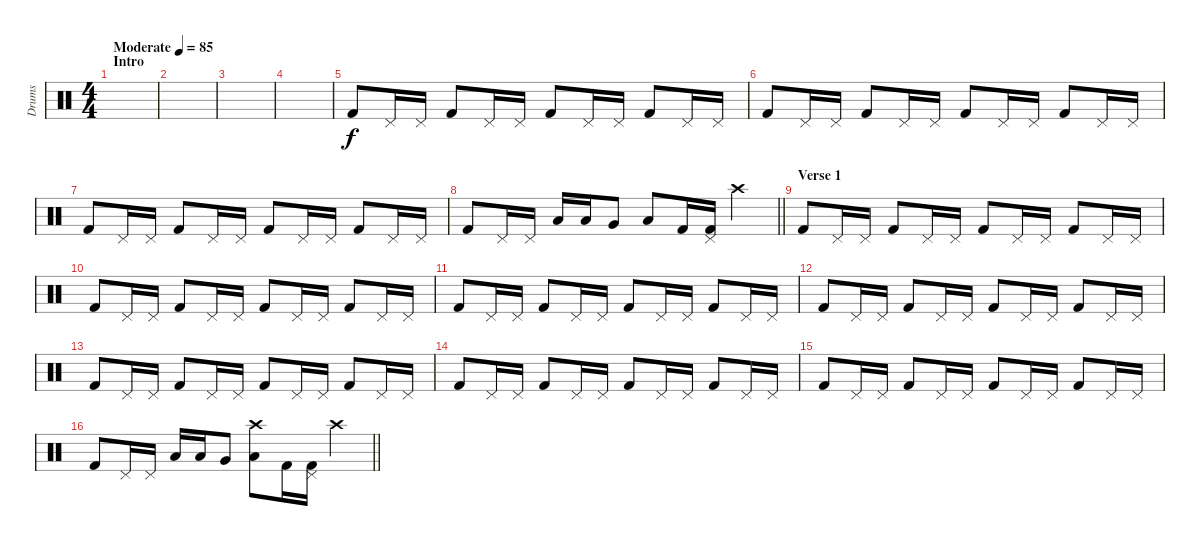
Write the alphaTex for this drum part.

\track ("Drums" "Drums") {instrument percussion}
\staff {score}
\articulation defaults
\ts (4 4)
\section ("" "Intro")
\tempo (85 "Moderate")
\clef neutral
\ks c
|
|
|
|
"Kick (hit) 2".8 "Pedal Hi-Hat (hit)".16 "Pedal Hi-Hat (hit)".16 "Kick (hit) 2".8 "Pedal Hi-Hat (hit)".16 "Pedal Hi-Hat (hit)".16 "Kick (hit) 2".8 "Pedal Hi-Hat (hit)".16 "Pedal Hi-Hat (hit)".16 "Kick (hit) 2".8 "Pedal Hi-Hat (hit)".16 "Pedal Hi-Hat (hit)".16 |
"Kick (hit) 2".8 "Pedal Hi-Hat (hit)".16 "Pedal Hi-Hat (hit)".16 "Kick (hit) 2".8 "Pedal Hi-Hat (hit)".16 "Pedal Hi-Hat (hit)".16 "Kick (hit) 2".8 "Pedal Hi-Hat (hit)".16 "Pedal Hi-Hat (hit)".16 "Kick (hit) 2".8 "Pedal Hi-Hat (hit)".16 "Pedal Hi-Hat (hit)".16 |
"Kick (hit) 2".8 "Pedal Hi-Hat (hit)".16 "Pedal Hi-Hat (hit)".16 "Kick (hit) 2".8 "Pedal Hi-Hat (hit)".16 "Pedal Hi-Hat (hit)".16 "Kick (hit) 2".8 "Pedal Hi-Hat (hit)".16 "Pedal Hi-Hat (hit)".16 "Kick (hit) 2".8 "Pedal Hi-Hat (hit)".16 "Pedal Hi-Hat (hit)".16 |
\barLineRight lightlight "Kick (hit) 2".8 "Pedal Hi-Hat (hit)".16 "Pedal Hi-Hat (hit)".16 "Low Tom (hit)".16 "Low Tom (hit)".16 "Very Low Tom (hit)".8 "Low Floor Tom (hit)".8 "Kick (hit) 2".16
("Pedal Hi-Hat (hit)" "Kick (hit) 2").16 "Crash high (hit)".4 |
\section ("" "Verse 1")
"Kick (hit) 2".8 "Pedal Hi-Hat (hit)".16 "Pedal Hi-Hat (hit)".16 "Kick (hit) 2".8 "Pedal Hi-Hat (hit)".16 "Pedal Hi-Hat (hit)".16 "Kick (hit) 2".8 "Pedal Hi-Hat (hit)".16 "Pedal Hi-Hat (hit)".16 "Kick (hit) 2".8 "Pedal Hi-Hat (hit)".16 "Pedal Hi-Hat (hit)".16 |
"Kick (hit) 2".8 "Pedal Hi-Hat (hit)".16 "Pedal Hi-Hat (hit)".16 "Kick (hit) 2".8 "Pedal Hi-Hat (hit)".16 "Pedal Hi-Hat (hit)".16 "Kick (hit) 2".8 "Pedal Hi-Hat (hit)".16 "Pedal Hi-Hat (hit)".16 "Kick (hit) 2".8 "Pedal Hi-Hat (hit)".16 "Pedal Hi-Hat (hit)".16 |
"Kick (hit) 2".8 "Pedal Hi-Hat (hit)".16 "Pedal Hi-Hat (hit)".16 "Kick (hit) 2".8 "Pedal Hi-Hat (hit)".16 "Pedal Hi-Hat (hit)".16 "Kick (hit) 2".8 "Pedal Hi-Hat (hit)".16 "Pedal Hi-Hat (hit)".16 "Kick (hit) 2".8 "Pedal Hi-Hat (hit)".16 "Pedal Hi-Hat (hit)".16 |
"Kick (hit) 2".8 "Pedal Hi-Hat (hit)".16 "Pedal Hi-Hat (hit)".16 "Kick (hit) 2".8 "Pedal Hi-Hat (hit)".16 "Pedal Hi-Hat (hit)".16 "Kick (hit) 2".8 "Pedal Hi-Hat (hit)".16 "Pedal Hi-Hat (hit)".16 "Kick (hit) 2".8 "Pedal Hi-Hat (hit)".16 "Pedal Hi-Hat (hit)".16 |
"Kick (hit) 2".8 "Pedal Hi-Hat (hit)".16 "Pedal Hi-Hat (hit)".16 "Kick (hit) 2".8 "Pedal Hi-Hat (hit)".16 "Pedal Hi-Hat (hit)".16 "Kick (hit) 2".8 "Pedal Hi-Hat (hit)".16 "Pedal Hi-Hat (hit)".16 "Kick (hit) 2".8 "Pedal Hi-Hat (hit)".16 "Pedal Hi-Hat (hit)".16 |
"Kick (hit) 2".8 "Pedal Hi-Hat (hit)".16 "Pedal Hi-Hat (hit)".16 "Kick (hit) 2".8 "Pedal Hi-Hat (hit)".16 "Pedal Hi-Hat (hit)".16 "Kick (hit) 2".8 "Pedal Hi-Hat (hit)".16 "Pedal Hi-Hat (hit)".16 "Kick (hit) 2".8 "Pedal Hi-Hat (hit)".16 "Pedal Hi-Hat (hit)".16 |
"Kick (hit) 2".8 "Pedal Hi-Hat (hit)".16 "Pedal Hi-Hat (hit)".16 "Kick (hit) 2".8 "Pedal Hi-Hat (hit)".16 "Pedal Hi-Hat (hit)".16 "Kick (hit) 2".8 "Pedal Hi-Hat (hit)".16 "Pedal Hi-Hat (hit)".16 "Kick (hit) 2".8 "Pedal Hi-Hat (hit)".16 "Pedal Hi-Hat (hit)".16 |
\barLineRight lightlight "Kick (hit) 2".8 "Pedal Hi-Hat (hit)".16 "Pedal Hi-Hat (hit)".16 "Low Tom (hit)".16 "Low Tom (hit)".16 "Very Low Tom (hit)".8
("Crash high (hit)" "Low Floor Tom (hit)").8 "Kick (hit) 2".16 ("Pedal Hi-Hat (hit)" "Kick (hit) 2").16 "Crash high (hit)".4
